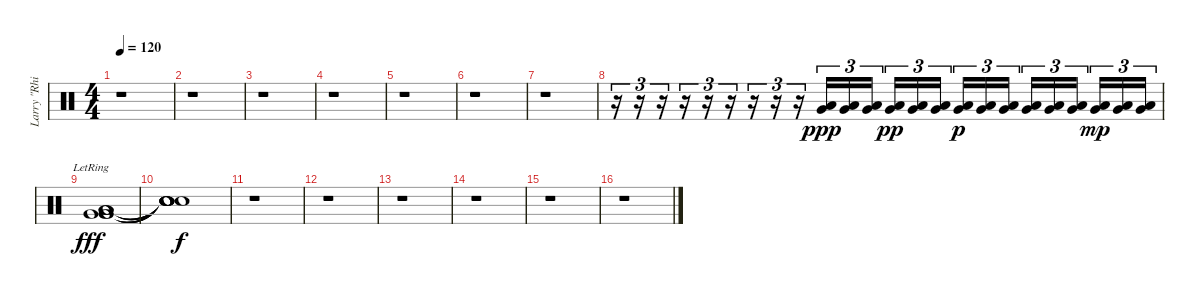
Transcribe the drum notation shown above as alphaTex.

\track ("Larry \"Rhino\" Rheinhart" "Larry \"Rhi") {instrument percussion}
\staff {score}
\articulation defaults
\ts (4 4)
\tempo 120
\clef neutral
\ks c
r.1{dy ppp} |
r.1 |
r.1 |
r.1 |
r.1 |
r.1 |
r.1 |
r.16{tu (3 2)} r.16{tu (3 2)} r.16{tu (3 2)} r.16{tu (3 2)} r.16{tu (3 2)} r.16{tu (3 2)} r.16{tu (3 2)} r.16{tu (3 2)} r.16{tu (3 2)} ("Low Floor Tom (hit)" "Very Low Tom (hit)").16{tu (3 2)} ("Low Floor Tom (hit)" "Very Low Tom (hit)").16{tu (3 2)} ("Low Floor Tom (hit)" "Very Low Tom (hit)").16{tu (3 2)} ("Low Floor Tom (hit)" "Very Low Tom (hit)").16{tu (3 2) dy pp} ("Low Floor Tom (hit)" "Very Low Tom (hit)").16{tu (3 2)} ("Low Floor Tom (hit)" "Very Low Tom (hit)").16{tu (3 2) beam splitsecondary} ("Low Floor Tom (hit)" "Very Low Tom (hit)").16{tu (3 2) dy p} ("Low Floor Tom (hit)" "Very Low Tom (hit)").16{tu (3 2)} ("Low Floor Tom (hit)" "Very Low Tom (hit)").16{tu (3 2)} ("Low Floor Tom (hit)" "Very Low Tom (hit)").16{tu (3 2)} ("Low Floor Tom (hit)" "Very Low Tom (hit)").16{tu (3 2)} ("Low Floor Tom (hit)" "Very Low Tom (hit)").16{tu (3 2) beam splitsecondary} ("Low Floor Tom (hit)" "Very Low Tom (hit)").16{tu (3 2) dy mp} ("Low Floor Tom (hit)" "Very Low Tom (hit)").16{tu (3 2)} ("Low Floor Tom (hit)" "Very Low Tom (hit)").16{tu (3 2)} |
("Very Low Tom (hit)"{lr} "Very Low Tom (hit)" "Very Low Tom (hit)" "Low Floor Tom (hit)" "Low Floor Tom (hit)" "Low Floor Tom (hit)").1{dy fff volume 16 balance 13} |
("Snare (hit)"{t} "Snare (hit)"{t} "Snare (hit)"{t} "Snare (hit)"{t} "Snare (hit)"{t} "Snare (hit)"{t}).1{dy f} |
r.1 |
r.1 |
r.1 |
r.1 |
r.1 |
r.1
